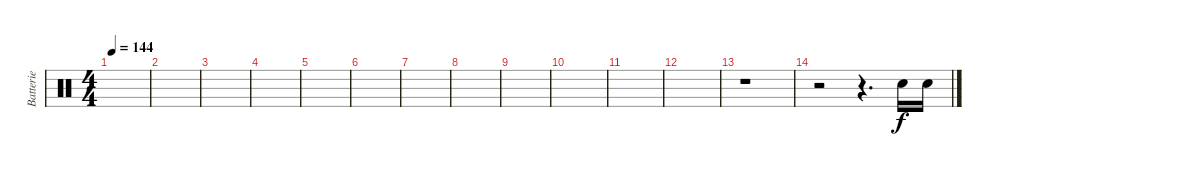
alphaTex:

\track ("Batterie" "Batterie") {instrument percussion}
\staff {score}
\articulation defaults
\ts (4 4)
\tempo 144
\clef neutral
\ks c
|
|
|
|
|
|
|
|
|
|
|
|
r.1 |
r.2 r.4{d} "Electric Snare (hit)".16 "Electric Snare (hit)".16
